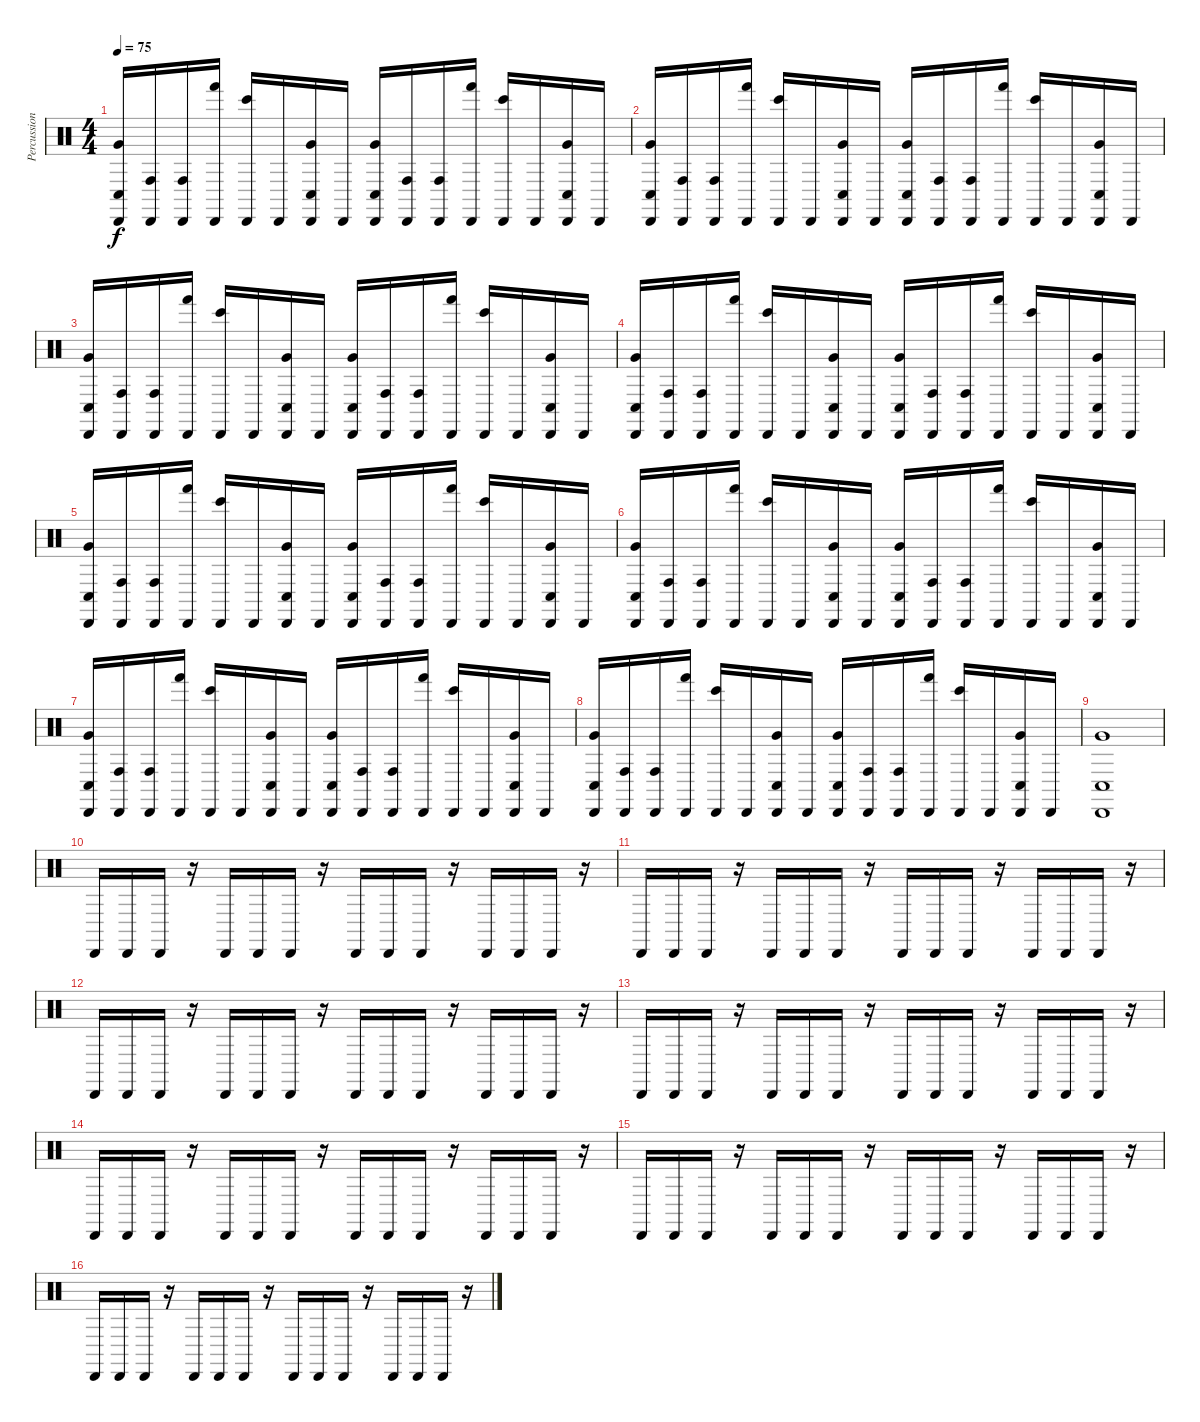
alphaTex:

\track ("Percussions" "Percussion") {instrument percussion}
\staff {score}
\articulation defaults
\ts (4 4)
\tempo 75
\clef neutral
\ks c
("Conga low (hit)" "Very Low Tom (hit)" "Cabasa (hit)").16{dy f} ("Conga high (hit)" "Cabasa (hit)").16 ("Conga high (hit)" "Cabasa (hit)").16 ("Hand (hit)" "Cabasa (hit)").16 ("Bongo High (hit)" "Cabasa (hit)").16 "Cabasa (hit)".16 ("Conga low (hit)" "Very Low Tom (hit)" "Cabasa (hit)").16 "Cabasa (hit)".16 ("Conga low (hit)" "Very Low Tom (hit)" "Cabasa (hit)").16 ("Conga high (hit)" "Cabasa (hit)").16 ("Conga high (hit)" "Cabasa (hit)").16 ("Hand (hit)" "Cabasa (hit)").16 ("Bongo High (hit)" "Cabasa (hit)").16 "Cabasa (hit)".16 ("Conga low (hit)" "Very Low Tom (hit)" "Cabasa (hit)").16 "Cabasa (hit)".16 |
("Conga low (hit)" "Very Low Tom (hit)" "Cabasa (hit)").16 ("Conga high (hit)" "Cabasa (hit)").16 ("Conga high (hit)" "Cabasa (hit)").16 ("Hand (hit)" "Cabasa (hit)").16 ("Bongo High (hit)" "Cabasa (hit)").16 "Cabasa (hit)".16 ("Conga low (hit)" "Very Low Tom (hit)" "Cabasa (hit)").16 "Cabasa (hit)".16 ("Conga low (hit)" "Very Low Tom (hit)" "Cabasa (hit)").16 ("Conga high (hit)" "Cabasa (hit)").16 ("Conga high (hit)" "Cabasa (hit)").16 ("Hand (hit)" "Cabasa (hit)").16 ("Bongo High (hit)" "Cabasa (hit)").16 "Cabasa (hit)".16 ("Conga low (hit)" "Very Low Tom (hit)" "Cabasa (hit)").16 "Cabasa (hit)".16 |
("Conga low (hit)" "Very Low Tom (hit)" "Cabasa (hit)").16 ("Conga high (hit)" "Cabasa (hit)").16 ("Conga high (hit)" "Cabasa (hit)").16 ("Hand (hit)" "Cabasa (hit)").16 ("Bongo High (hit)" "Cabasa (hit)").16 "Cabasa (hit)".16 ("Conga low (hit)" "Very Low Tom (hit)" "Cabasa (hit)").16 "Cabasa (hit)".16 ("Conga low (hit)" "Very Low Tom (hit)" "Cabasa (hit)").16 ("Conga high (hit)" "Cabasa (hit)").16 ("Conga high (hit)" "Cabasa (hit)").16 ("Hand (hit)" "Cabasa (hit)").16 ("Bongo High (hit)" "Cabasa (hit)").16 "Cabasa (hit)".16 ("Conga low (hit)" "Very Low Tom (hit)" "Cabasa (hit)").16 "Cabasa (hit)".16 |
("Conga low (hit)" "Very Low Tom (hit)" "Cabasa (hit)").16 ("Conga high (hit)" "Cabasa (hit)").16 ("Conga high (hit)" "Cabasa (hit)").16 ("Hand (hit)" "Cabasa (hit)").16 ("Bongo High (hit)" "Cabasa (hit)").16 "Cabasa (hit)".16 ("Conga low (hit)" "Very Low Tom (hit)" "Cabasa (hit)").16 "Cabasa (hit)".16 ("Conga low (hit)" "Very Low Tom (hit)" "Cabasa (hit)").16 ("Conga high (hit)" "Cabasa (hit)").16 ("Conga high (hit)" "Cabasa (hit)").16 ("Hand (hit)" "Cabasa (hit)").16 ("Bongo High (hit)" "Cabasa (hit)").16 "Cabasa (hit)".16 ("Conga low (hit)" "Very Low Tom (hit)" "Cabasa (hit)").16 "Cabasa (hit)".16 |
("Conga low (hit)" "Very Low Tom (hit)" "Cabasa (hit)").16 ("Conga high (hit)" "Cabasa (hit)").16 ("Conga high (hit)" "Cabasa (hit)").16 ("Hand (hit)" "Cabasa (hit)").16 ("Bongo High (hit)" "Cabasa (hit)").16 "Cabasa (hit)".16 ("Conga low (hit)" "Very Low Tom (hit)" "Cabasa (hit)").16 "Cabasa (hit)".16 ("Conga low (hit)" "Very Low Tom (hit)" "Cabasa (hit)").16 ("Conga high (hit)" "Cabasa (hit)").16 ("Conga high (hit)" "Cabasa (hit)").16 ("Hand (hit)" "Cabasa (hit)").16 ("Bongo High (hit)" "Cabasa (hit)").16 "Cabasa (hit)".16 ("Conga low (hit)" "Very Low Tom (hit)" "Cabasa (hit)").16 "Cabasa (hit)".16 |
("Conga low (hit)" "Very Low Tom (hit)" "Cabasa (hit)").16 ("Conga high (hit)" "Cabasa (hit)").16 ("Conga high (hit)" "Cabasa (hit)").16 ("Hand (hit)" "Cabasa (hit)").16 ("Bongo High (hit)" "Cabasa (hit)").16 "Cabasa (hit)".16 ("Conga low (hit)" "Very Low Tom (hit)" "Cabasa (hit)").16 "Cabasa (hit)".16 ("Conga low (hit)" "Very Low Tom (hit)" "Cabasa (hit)").16 ("Conga high (hit)" "Cabasa (hit)").16 ("Conga high (hit)" "Cabasa (hit)").16 ("Hand (hit)" "Cabasa (hit)").16 ("Bongo High (hit)" "Cabasa (hit)").16 "Cabasa (hit)".16 ("Conga low (hit)" "Very Low Tom (hit)" "Cabasa (hit)").16 "Cabasa (hit)".16 |
("Conga low (hit)" "Very Low Tom (hit)" "Cabasa (hit)").16 ("Conga high (hit)" "Cabasa (hit)").16 ("Conga high (hit)" "Cabasa (hit)").16 ("Hand (hit)" "Cabasa (hit)").16 ("Bongo High (hit)" "Cabasa (hit)").16 "Cabasa (hit)".16 ("Conga low (hit)" "Very Low Tom (hit)" "Cabasa (hit)").16 "Cabasa (hit)".16 ("Conga low (hit)" "Very Low Tom (hit)" "Cabasa (hit)").16 ("Conga high (hit)" "Cabasa (hit)").16 ("Conga high (hit)" "Cabasa (hit)").16 ("Hand (hit)" "Cabasa (hit)").16 ("Bongo High (hit)" "Cabasa (hit)").16 "Cabasa (hit)".16 ("Conga low (hit)" "Very Low Tom (hit)" "Cabasa (hit)").16 "Cabasa (hit)".16 |
("Conga low (hit)" "Very Low Tom (hit)" "Cabasa (hit)").16 ("Conga high (hit)" "Cabasa (hit)").16 ("Conga high (hit)" "Cabasa (hit)").16 ("Hand (hit)" "Cabasa (hit)").16 ("Bongo High (hit)" "Cabasa (hit)").16 "Cabasa (hit)".16 ("Conga low (hit)" "Very Low Tom (hit)" "Cabasa (hit)").16 "Cabasa (hit)".16 ("Conga low (hit)" "Very Low Tom (hit)" "Cabasa (hit)").16 ("Conga high (hit)" "Cabasa (hit)").16 ("Conga high (hit)" "Cabasa (hit)").16 ("Hand (hit)" "Cabasa (hit)").16 ("Bongo High (hit)" "Cabasa (hit)").16 "Cabasa (hit)".16 ("Conga low (hit)" "Very Low Tom (hit)" "Cabasa (hit)").16 "Cabasa (hit)".16 |
("Conga low (hit)" "Very Low Tom (hit)" "Cabasa (hit)").1 |
"Cabasa (hit)".16 "Cabasa (hit)".16 "Cabasa (hit)".16 r.16 "Cabasa (hit)".16 "Cabasa (hit)".16 "Cabasa (hit)".16 r.16 "Cabasa (hit)".16 "Cabasa (hit)".16 "Cabasa (hit)".16 r.16 "Cabasa (hit)".16 "Cabasa (hit)".16 "Cabasa (hit)".16 r.16 |
"Cabasa (hit)".16 "Cabasa (hit)".16 "Cabasa (hit)".16 r.16 "Cabasa (hit)".16 "Cabasa (hit)".16 "Cabasa (hit)".16 r.16 "Cabasa (hit)".16 "Cabasa (hit)".16 "Cabasa (hit)".16 r.16 "Cabasa (hit)".16 "Cabasa (hit)".16 "Cabasa (hit)".16 r.16 |
"Cabasa (hit)".16 "Cabasa (hit)".16 "Cabasa (hit)".16 r.16 "Cabasa (hit)".16 "Cabasa (hit)".16 "Cabasa (hit)".16 r.16 "Cabasa (hit)".16 "Cabasa (hit)".16 "Cabasa (hit)".16 r.16 "Cabasa (hit)".16 "Cabasa (hit)".16 "Cabasa (hit)".16 r.16 |
"Cabasa (hit)".16 "Cabasa (hit)".16 "Cabasa (hit)".16 r.16 "Cabasa (hit)".16 "Cabasa (hit)".16 "Cabasa (hit)".16 r.16 "Cabasa (hit)".16 "Cabasa (hit)".16 "Cabasa (hit)".16 r.16 "Cabasa (hit)".16 "Cabasa (hit)".16 "Cabasa (hit)".16 r.16 |
"Cabasa (hit)".16 "Cabasa (hit)".16 "Cabasa (hit)".16 r.16 "Cabasa (hit)".16 "Cabasa (hit)".16 "Cabasa (hit)".16 r.16 "Cabasa (hit)".16 "Cabasa (hit)".16 "Cabasa (hit)".16 r.16 "Cabasa (hit)".16 "Cabasa (hit)".16 "Cabasa (hit)".16 r.16 |
"Cabasa (hit)".16 "Cabasa (hit)".16 "Cabasa (hit)".16 r.16 "Cabasa (hit)".16 "Cabasa (hit)".16 "Cabasa (hit)".16 r.16 "Cabasa (hit)".16 "Cabasa (hit)".16 "Cabasa (hit)".16 r.16 "Cabasa (hit)".16 "Cabasa (hit)".16 "Cabasa (hit)".16 r.16 |
"Cabasa (hit)".16 "Cabasa (hit)".16 "Cabasa (hit)".16 r.16 "Cabasa (hit)".16 "Cabasa (hit)".16 "Cabasa (hit)".16 r.16 "Cabasa (hit)".16 "Cabasa (hit)".16 "Cabasa (hit)".16 r.16 "Cabasa (hit)".16 "Cabasa (hit)".16 "Cabasa (hit)".16 r.16
